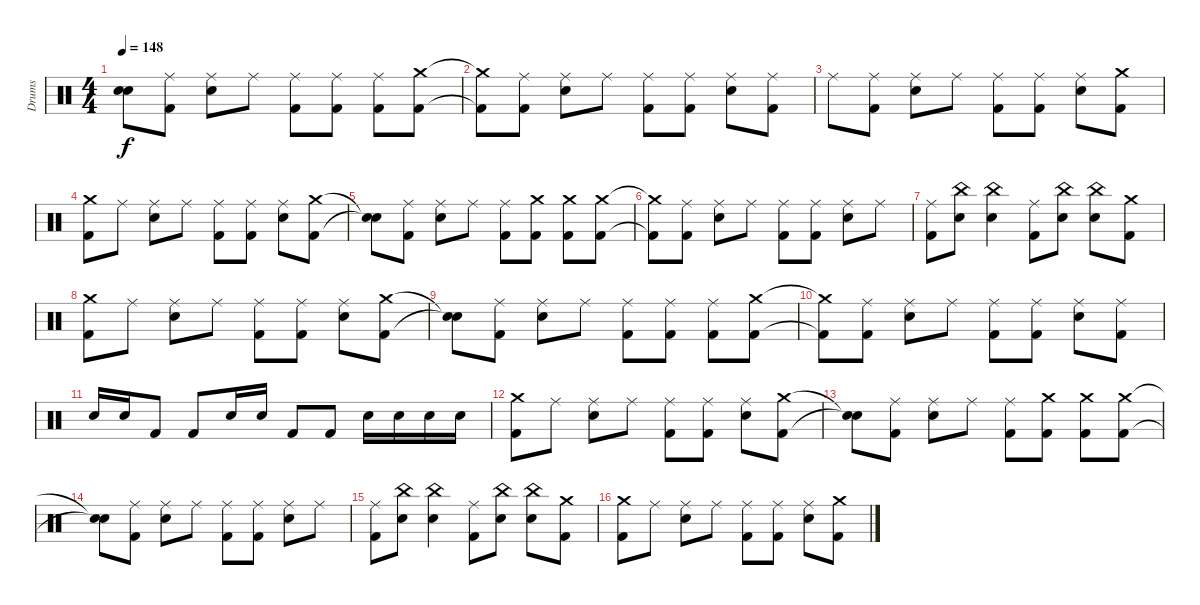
\track ("Drums" "Drums") {instrument percussion}
\staff {score}
\articulation defaults
\ts (4 4)
\tempo 148
\clef neutral
\ks c
("Snare (hit)"{t} "Snare (hit)"{t}).8{dy f} ("Ride (middle)" "Kick (hit) 2").8 ("Ride (middle)" "Snare (hit) 2").8 "Ride (middle)".8 ("Ride (middle)" "Kick (hit) 2").8 ("Ride (middle)" "Kick (hit) 2").8 ("Ride (middle)" "Kick (hit) 2").8 ("Crash medium (hit)" "Kick (hit) 2").8 |
("Crash medium (hit)"{t} "Kick (hit) 2"{t}).8 ("Ride (middle)" "Kick (hit) 2").8 ("Ride (middle)" "Snare (hit) 2").8 "Ride (middle)".8 ("Ride (middle)" "Kick (hit) 2").8 ("Ride (middle)" "Kick (hit) 2").8 ("Ride (middle)" "Snare (hit) 2").8 ("Ride (middle)" "Kick (hit) 2").8 |
"Ride (middle)".8 ("Ride (middle)" "Kick (hit) 2").8 ("Ride (middle)" "Snare (hit) 2").8 "Ride (middle)".8 ("Ride (middle)" "Kick (hit) 2").8 ("Ride (middle)" "Kick (hit) 2").8 ("Ride (middle)" "Snare (hit) 2").8 ("Crash medium (hit)" "Kick (hit) 2").8 |
("Crash medium (hit)" "Kick (hit) 2").8 "Ride (middle)".8 ("Ride (middle)" "Snare (hit) 2").8 "Ride (middle)".8 ("Ride (middle)" "Kick (hit) 2").8 ("Ride (middle)" "Kick (hit) 2").8 ("Ride (middle)" "Snare (hit) 2").8 ("Crash medium (hit)" "Kick (hit) 2").8 |
("Snare (hit)"{t} "Snare (hit)"{t}).8 ("Ride (middle)" "Kick (hit) 2").8 ("Ride (middle)" "Snare (hit) 2").8 "Ride (middle)".8 ("Ride (middle)" "Kick (hit) 2").8 ("Crash medium (hit)" "Kick (hit) 2").8 ("Crash medium (hit)" "Kick (hit) 2").8 ("Crash medium (hit)" "Kick (hit) 2").8 |
("Crash medium (hit)"{t} "Kick (hit) 2"{t}).8 ("Ride (middle)" "Kick (hit) 2").8 ("Ride (middle)" "Snare (hit) 2").8 "Ride (middle)".8 ("Ride (middle)" "Kick (hit) 2").8 ("Ride (middle)" "Kick (hit) 2").8 ("Ride (middle)" "Snare (hit) 2").8 "Ride (middle)".8 |
("Ride (middle)" "Kick (hit) 2").8 ("China (hit)" "Snare (hit) 2").8 ("China (hit)" "Snare (hit) 2").4 ("Ride (middle)" "Kick (hit) 2").8 ("China (hit)" "Snare (hit) 2").8 ("China (hit)" "Snare (hit) 2").8 ("Crash medium (hit)" "Kick (hit) 2").8 |
("Crash medium (hit)" "Kick (hit) 2").8 "Ride (middle)".8 ("Ride (middle)" "Snare (hit) 2").8 "Ride (middle)".8 ("Ride (middle)" "Kick (hit) 2").8 ("Ride (middle)" "Kick (hit) 2").8 ("Ride (middle)" "Snare (hit) 2").8 ("Crash medium (hit)" "Kick (hit) 2").8 |
("Snare (hit)"{t} "Snare (hit)"{t}).8 ("Ride (middle)" "Kick (hit) 2").8 ("Ride (middle)" "Snare (hit) 2").8 "Ride (middle)".8 ("Ride (middle)" "Kick (hit) 2").8 ("Ride (middle)" "Kick (hit) 2").8 ("Ride (middle)" "Kick (hit) 2").8 ("Crash medium (hit)" "Kick (hit) 2").8 |
("Crash medium (hit)"{t} "Kick (hit) 2"{t}).8 ("Ride (middle)" "Kick (hit) 2").8 ("Ride (middle)" "Snare (hit) 2").8 "Ride (middle)".8 ("Ride (middle)" "Kick (hit) 2").8 ("Ride (middle)" "Kick (hit) 2").8 ("Ride (middle)" "Snare (hit) 2").8 ("Ride (middle)" "Kick (hit) 2").8 |
"Snare (hit) 2".16 "Snare (hit) 2".16 "Kick (hit) 2".8 "Kick (hit) 2".8 "Snare (hit) 2".16 "Snare (hit) 2".16 "Kick (hit) 2".8 "Kick (hit) 2".8 "Snare (hit) 2".16 "Snare (hit) 2".16 "Snare (hit) 2".16 "Snare (hit) 2".16 |
("Crash medium (hit)" "Kick (hit) 2").8 "Ride (middle)".8 ("Ride (middle)" "Snare (hit) 2").8 "Ride (middle)".8 ("Ride (middle)" "Kick (hit) 2").8 ("Ride (middle)" "Kick (hit) 2").8 ("Ride (middle)" "Snare (hit) 2").8 ("Crash medium (hit)" "Kick (hit) 2").8 |
("Snare (hit)"{t} "Snare (hit)"{t}).8 ("Ride (middle)" "Kick (hit) 2").8 ("Ride (middle)" "Snare (hit) 2").8 "Ride (middle)".8 ("Ride (middle)" "Kick (hit) 2").8 ("Crash medium (hit)" "Kick (hit) 2").8 ("Crash medium (hit)" "Kick (hit) 2").8 ("Crash medium (hit)" "Kick (hit) 2").8 |
("Snare (hit)"{t} "Snare (hit)"{t}).8 ("Ride (middle)" "Kick (hit) 2").8 ("Ride (middle)" "Snare (hit) 2").8 "Ride (middle)".8 ("Ride (middle)" "Kick (hit) 2").8 ("Ride (middle)" "Kick (hit) 2").8 ("Ride (middle)" "Snare (hit) 2").8 "Ride (middle)".8 |
("Ride (middle)" "Kick (hit) 2").8 ("China (hit)" "Snare (hit) 2").8 ("China (hit)" "Snare (hit) 2").4 ("Ride (middle)" "Kick (hit) 2").8 ("China (hit)" "Snare (hit) 2").8 ("China (hit)" "Snare (hit) 2").8 ("Crash medium (hit)" "Kick (hit) 2").8 |
("Crash medium (hit)" "Kick (hit) 2").8 "Ride (middle)".8 ("Ride (middle)" "Snare (hit) 2").8 "Ride (middle)".8 ("Ride (middle)" "Kick (hit) 2").8 ("Ride (middle)" "Kick (hit) 2").8 ("Ride (middle)" "Snare (hit) 2").8 ("Crash medium (hit)" "Kick (hit) 2").8
